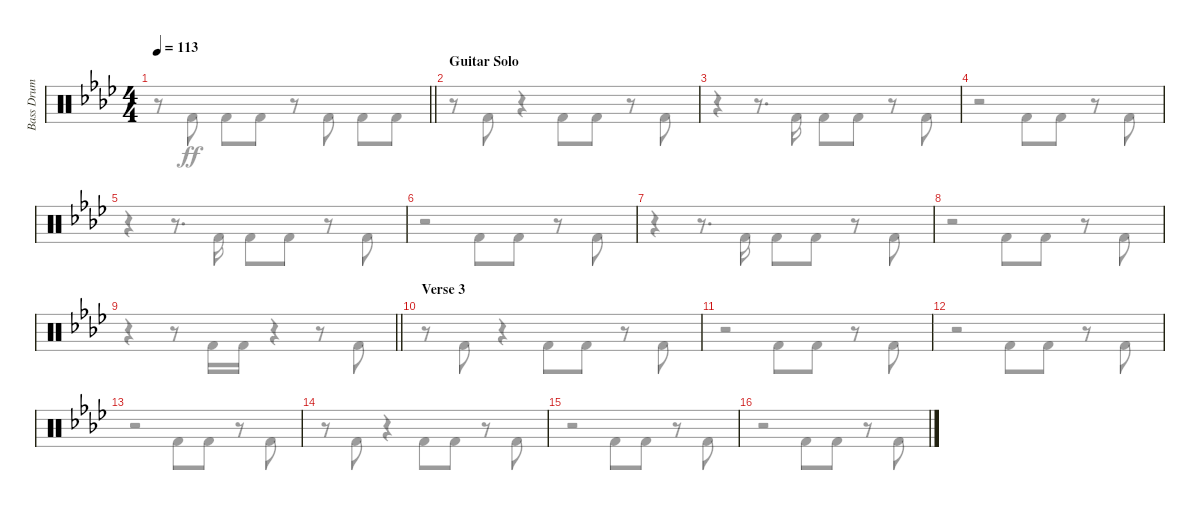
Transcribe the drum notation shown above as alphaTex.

\track ("Bass Drum" "Bass Drum") {instrument percussion}
\staff {score}
\articulation defaults
\voice
\ts (4 4)
\tempo 113
\clef neutral
\barLineRight lightlight
\ks fminor
|
\section ("" "Guitar Solo")
|
|
|
|
|
|
|
\barLineRight lightlight
|
\section ("" "Verse 3")
|
|
|
|
|
|
\voice
\clef neutral
\barLineRight lightlight
\ks fminor
r.8{dy ff} "Kick (hit) 2".8 "Kick (hit) 2".8 "Kick (hit) 2".8 r.8 "Kick (hit) 2".8 "Kick (hit) 2".8 "Kick (hit) 2".8 |
r.8 "Kick (hit) 2".8 r.4 "Kick (hit) 2".8 "Kick (hit) 2".8 r.8 "Kick (hit) 2".8 |
r.4 r.8{d} "Kick (hit) 2".16 "Kick (hit) 2".8 "Kick (hit) 2".8 r.8 "Kick (hit) 2".8 |
r.2 "Kick (hit) 2".8 "Kick (hit) 2".8 r.8 "Kick (hit) 2".8 |
r.4 r.8{d} "Kick (hit) 2".16 "Kick (hit) 2".8 "Kick (hit) 2".8 r.8 "Kick (hit) 2".8 |
r.2 "Kick (hit) 2".8 "Kick (hit) 2".8 r.8 "Kick (hit) 2".8 |
r.4 r.8{d} "Kick (hit) 2".16 "Kick (hit) 2".8 "Kick (hit) 2".8 r.8 "Kick (hit) 2".8 |
r.2 "Kick (hit) 2".8 "Kick (hit) 2".8 r.8 "Kick (hit) 2".8 |
\barLineRight lightlight
r.4 r.8 "Kick (hit) 2".16 "Kick (hit) 2".16 r.4 r.8 "Kick (hit) 2".8 |
r.8 "Kick (hit) 2".8 r.4 "Kick (hit) 2".8 "Kick (hit) 2".8 r.8 "Kick (hit) 2".8 |
r.2 "Kick (hit) 2".8 "Kick (hit) 2".8 r.8 "Kick (hit) 2".8 |
r.2 "Kick (hit) 2".8 "Kick (hit) 2".8 r.8 "Kick (hit) 2".8 |
r.2 "Kick (hit) 2".8 "Kick (hit) 2".8 r.8 "Kick (hit) 2".8 |
r.8 "Kick (hit) 2".8 r.4 "Kick (hit) 2".8 "Kick (hit) 2".8 r.8 "Kick (hit) 2".8 |
r.2 "Kick (hit) 2".8 "Kick (hit) 2".8 r.8 "Kick (hit) 2".8 |
r.2 "Kick (hit) 2".8 "Kick (hit) 2".8 r.8 "Kick (hit) 2".8
